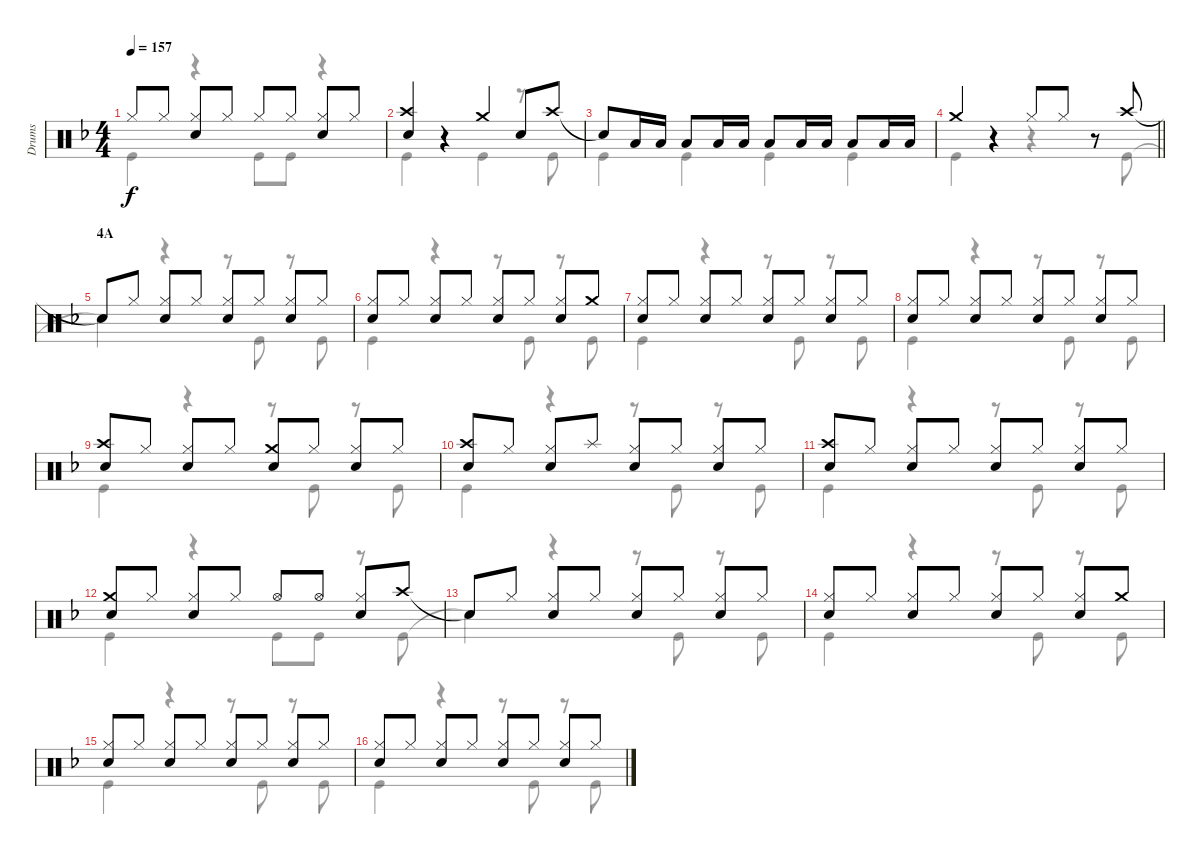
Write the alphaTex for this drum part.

\track ("Drums" "Drums") {instrument percussion}
\staff {score}
\articulation defaults
\voice
\ts (4 4)
\tempo 157
\clef neutral
\ks f "Hi-Hat (closed)".8{dy f} "Hi-Hat (closed)".8
("Hi-Hat (closed)" "Snare (hit) 2").8 "Hi-Hat (closed)".8 "Hi-Hat (closed)".8 "Hi-Hat (closed)".8 ("Hi-Hat (closed)" "Snare (hit) 2").8 "Hi-Hat (closed)".8 |
("Crash high (hit)" "Snare (hit) 2").4 r.4 "Crash medium (hit)".4 "Snare (hit) 2".8 "Crash high (hit)".8 |
"Snare (hit)"{t}.8 "Low Tom (hit)".16 "Low Tom (hit)".16 "Low Tom (hit)".8 "Low Tom (hit)".16 "Low Tom (hit)".16 "Low Tom (hit)".8 "Low Tom (hit)".16 "Low Tom (hit)".16 "Low Tom (hit)".8 "Low Tom (hit)".16 "Low Tom (hit)".16 |
\barLineRight lightlight "Crash medium (hit)".4
r.4 "Hi-Hat (closed)".8 "Hi-Hat (closed)".8 r.8 "Crash high (hit)".8 |
\section ("" "4A")
"Snare (hit)"{t}.8 "Hi-Hat (closed)".8 ("Hi-Hat (closed)" "Snare (hit) 2").8 "Hi-Hat (closed)".8 ("Hi-Hat (closed)" "Snare (hit) 2").8 "Hi-Hat (closed)".8 ("Hi-Hat (closed)" "Snare (hit) 2").8 "Hi-Hat (closed)".8 |
("Hi-Hat (closed)" "Snare (hit) 2").8 "Hi-Hat (closed)".8 ("Hi-Hat (closed)" "Snare (hit) 2").8 "Hi-Hat (closed)".8 ("Hi-Hat (closed)" "Snare (hit) 2").8 "Hi-Hat (closed)".8 ("Hi-Hat (closed)" "Snare (hit) 2").8 "Crash medium (hit)".8 |
("Hi-Hat (closed)" "Snare (hit) 2").8 "Hi-Hat (closed)".8 ("Hi-Hat (closed)" "Snare (hit) 2").8 "Hi-Hat (closed)".8 ("Hi-Hat (closed)" "Snare (hit) 2").8 "Hi-Hat (closed)".8 ("Hi-Hat (closed)" "Snare (hit) 2").8 "Hi-Hat (closed)".8 |
("Hi-Hat (closed)" "Snare (hit) 2").8 "Hi-Hat (closed)".8 ("Hi-Hat (closed)" "Snare (hit) 2").8 "Hi-Hat (closed)".8 ("Hi-Hat (closed)" "Snare (hit) 2").8 "Hi-Hat (closed)".8 ("Hi-Hat (closed)" "Snare (hit) 2").8 "Hi-Hat (closed)".8 |
("Crash high (hit)" "Snare (hit) 2").8 "Hi-Hat (closed)".8 ("Hi-Hat (closed)" "Snare (hit) 2").8 "Hi-Hat (closed)".8 ("Crash medium (hit)" "Snare (hit) 2").8 "Hi-Hat (closed)".8 ("Hi-Hat (closed)" "Snare (hit) 2").8 "Hi-Hat (closed)".8 |
("Crash high (hit)" "Snare (hit) 2").8 "Hi-Hat (closed)".8 ("Hi-Hat (closed)" "Snare (hit) 2").8 "Splash (hit)".8 ("Hi-Hat (closed)" "Snare (hit) 2").8 "Hi-Hat (closed)".8 ("Hi-Hat (closed)" "Snare (hit) 2").8 "Hi-Hat (closed)".8 |
("Crash high (hit)" "Snare (hit) 2").8 "Hi-Hat (closed)".8 ("Hi-Hat (closed)" "Snare (hit) 2").8 "Hi-Hat (closed)".8 ("Hi-Hat (closed)" "Snare (hit) 2").8 "Hi-Hat (closed)".8 ("Hi-Hat (closed)" "Snare (hit) 2").8 "Hi-Hat (closed)".8 |
("Crash medium (hit)" "Snare (hit) 2").8 "Hi-Hat (closed)".8 ("Hi-Hat (closed)" "Snare (hit) 2").8 "Hi-Hat (closed)".8 "Hi-Hat (open)".8 "Hi-Hat (open)".8 ("Hi-Hat (closed)" "Snare (hit) 2").8 "Crash high (hit)".8 |
"Snare (hit)"{t}.8 "Hi-Hat (closed)".8 ("Hi-Hat (closed)" "Snare (hit) 2").8 "Hi-Hat (closed)".8 ("Hi-Hat (closed)" "Snare (hit) 2").8 "Hi-Hat (closed)".8 ("Hi-Hat (closed)" "Snare (hit) 2").8 "Hi-Hat (closed)".8 |
("Hi-Hat (closed)" "Snare (hit) 2").8 "Hi-Hat (closed)".8 ("Hi-Hat (closed)" "Snare (hit) 2").8 "Hi-Hat (closed)".8 ("Hi-Hat (closed)" "Snare (hit) 2").8 "Hi-Hat (closed)".8 ("Hi-Hat (closed)" "Snare (hit) 2").8 "Crash medium (hit)".8 |
("Hi-Hat (closed)" "Snare (hit) 2").8 "Hi-Hat (closed)".8 ("Hi-Hat (closed)" "Snare (hit) 2").8 "Hi-Hat (closed)".8 ("Hi-Hat (closed)" "Snare (hit) 2").8 "Hi-Hat (closed)".8 ("Hi-Hat (closed)" "Snare (hit) 2").8 "Hi-Hat (closed)".8 |
("Hi-Hat (closed)" "Snare (hit) 2").8 "Hi-Hat (closed)".8 ("Hi-Hat (closed)" "Snare (hit) 2").8 "Hi-Hat (closed)".8 ("Hi-Hat (closed)" "Snare (hit) 2").8 "Hi-Hat (closed)".8 ("Hi-Hat (closed)" "Snare (hit) 2").8 "Hi-Hat (closed)".8
\voice
\clef neutral
\ottava regular
\simile none
\ks f "Kick (hit)".4{dy f}
r.4 "Kick (hit)".8 "Kick (hit)".8 r.4 |
"Kick (hit)".4 r.4 "Kick (hit)".4 r.8 "Kick (hit)".8 |
"Kick (hit)".4 "Kick (hit)".4 "Kick (hit)".4 "Kick (hit)".4 |
\barLineRight lightlight "Kick (hit)".4
r.4 r.4 r.8 "Kick (hit)".8 |
"Snare (hit)"{t}.4 r.4 r.8 "Kick (hit)".8 r.8 "Kick (hit)".8 |
"Kick (hit)".4 r.4 r.8 "Kick (hit)".8 r.8 "Kick (hit)".8 |
"Kick (hit)".4 r.4 r.8 "Kick (hit)".8 r.8 "Kick (hit)".8 |
"Kick (hit)".4 r.4 r.8 "Kick (hit)".8 r.8 "Kick (hit)".8 |
"Kick (hit)".4 r.4 r.8 "Kick (hit)".8 r.8 "Kick (hit)".8 |
"Kick (hit)".4 r.4 r.8 "Kick (hit)".8 r.8 "Kick (hit)".8 |
"Kick (hit)".4 r.4 r.8 "Kick (hit)".8 r.8 "Kick (hit)".8 |
"Kick (hit)".4 r.4 "Kick (hit)".8 "Kick (hit)".8 r.8 "Kick (hit)".8 |
"Snare (hit)"{t}.4 r.4 r.8 "Kick (hit)".8 r.8 "Kick (hit)".8 |
"Kick (hit)".4 r.4 r.8 "Kick (hit)".8 r.8 "Kick (hit)".8 |
"Kick (hit)".4 r.4 r.8 "Kick (hit)".8 r.8 "Kick (hit)".8 |
"Kick (hit)".4 r.4 r.8 "Kick (hit)".8 r.8 "Kick (hit)".8
